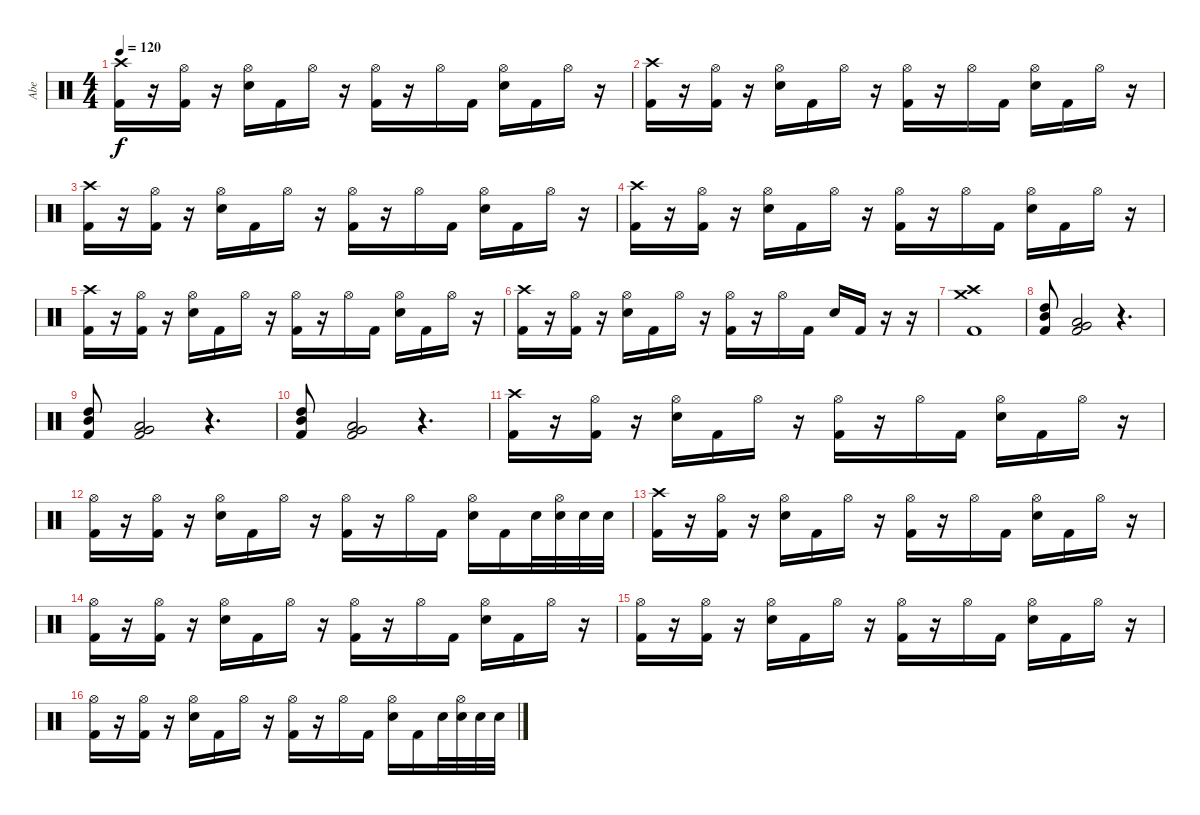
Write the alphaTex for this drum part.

\track ("Abe" "Abe") {instrument percussion}
\staff {score}
\articulation defaults
\ts (4 4)
\tempo 120
\clef neutral
\ks c
("Crash high (hit)" "Kick (hit) 2").16{dy f} r.16 ("Hi-Hat (open)" "Kick (hit) 2").16 r.16 ("Hi-Hat (open)" "Electric Snare (hit)").16 "Kick (hit) 2".16 "Hi-Hat (open)".16 r.16 ("Hi-Hat (open)" "Kick (hit) 2").16 r.16 "Hi-Hat (open)".16 "Kick (hit) 2".16 ("Hi-Hat (open)" "Electric Snare (hit)").16 "Kick (hit) 2".16 "Hi-Hat (open)".16 r.16 |
("Crash high (hit)" "Kick (hit) 2").16 r.16 ("Hi-Hat (open)" "Kick (hit) 2").16 r.16 ("Hi-Hat (open)" "Electric Snare (hit)").16 "Kick (hit) 2".16 "Hi-Hat (open)".16 r.16 ("Hi-Hat (open)" "Kick (hit) 2").16 r.16 "Hi-Hat (open)".16 "Kick (hit) 2".16 ("Hi-Hat (open)" "Electric Snare (hit)").16 "Kick (hit) 2".16 "Hi-Hat (open)".16 r.16 |
("Crash high (hit)" "Kick (hit) 2").16 r.16 ("Hi-Hat (open)" "Kick (hit) 2").16 r.16 ("Hi-Hat (open)" "Electric Snare (hit)").16 "Kick (hit) 2".16 "Hi-Hat (open)".16 r.16 ("Hi-Hat (open)" "Kick (hit) 2").16 r.16 "Hi-Hat (open)".16 "Kick (hit) 2".16 ("Hi-Hat (open)" "Electric Snare (hit)").16 "Kick (hit) 2".16 "Hi-Hat (open)".16 r.16 |
("Crash high (hit)" "Kick (hit) 2").16 r.16 ("Hi-Hat (open)" "Kick (hit) 2").16 r.16 ("Hi-Hat (open)" "Electric Snare (hit)").16 "Kick (hit) 2".16 "Hi-Hat (open)".16 r.16 ("Hi-Hat (open)" "Kick (hit) 2").16 r.16 "Hi-Hat (open)".16 "Kick (hit) 2".16 ("Hi-Hat (open)" "Electric Snare (hit)").16 "Kick (hit) 2".16 "Hi-Hat (open)".16 r.16 |
("Crash high (hit)" "Kick (hit) 2").16 r.16 ("Hi-Hat (open)" "Kick (hit) 2").16 r.16 ("Hi-Hat (open)" "Electric Snare (hit)").16 "Kick (hit) 2".16 "Hi-Hat (open)".16 r.16 ("Hi-Hat (open)" "Kick (hit) 2").16 r.16 "Hi-Hat (open)".16 "Kick (hit) 2".16 ("Hi-Hat (open)" "Electric Snare (hit)").16 "Kick (hit) 2".16 "Hi-Hat (open)".16 r.16 |
("Crash high (hit)" "Kick (hit) 2").16 r.16 ("Hi-Hat (open)" "Kick (hit) 2").16 r.16 ("Hi-Hat (open)" "Electric Snare (hit)").16 "Kick (hit) 2".16 "Hi-Hat (open)".16 r.16 ("Hi-Hat (open)" "Kick (hit) 2").16 r.16 "Hi-Hat (open)".16 "Kick (hit) 2".16 "Electric Snare (hit)".16 "Kick (hit) 2".16 r.16 r.16 |
("Crash medium (hit)" "Crash high (hit)" "Kick (hit) 2").1 |
("Mid Tom (hit)" "High Tom (hit)" "Kick (hit) 2").8 ("Low Tom (hit)" "Very Low Tom (hit)" "Kick (hit) 2").2 r.4{d} |
("Mid Tom (hit)" "High Tom (hit)" "Kick (hit) 2").8 ("Low Tom (hit)" "Very Low Tom (hit)" "Kick (hit) 2").2 r.4{d} |
("Mid Tom (hit)" "High Tom (hit)" "Kick (hit) 2").8 ("Low Tom (hit)" "Very Low Tom (hit)" "Kick (hit) 2").2 r.4{d} |
("Crash high (hit)" "Kick (hit) 2").16 r.16 ("Hi-Hat (open)" "Kick (hit) 2").16 r.16 ("Hi-Hat (open)" "Electric Snare (hit)").16 "Kick (hit) 2".16 "Hi-Hat (open)".16 r.16 ("Hi-Hat (open)" "Kick (hit) 2").16 r.16 "Hi-Hat (open)".16 "Kick (hit) 2".16 ("Hi-Hat (open)" "Electric Snare (hit)").16 "Kick (hit) 2".16 "Hi-Hat (open)".16 r.16 |
("Hi-Hat (open)" "Kick (hit) 2").16 r.16 ("Hi-Hat (open)" "Kick (hit) 2").16 r.16 ("Hi-Hat (open)" "Electric Snare (hit)").16 "Kick (hit) 2".16 "Hi-Hat (open)".16 r.16 ("Hi-Hat (open)" "Kick (hit) 2").16 r.16 "Hi-Hat (open)".16 "Kick (hit) 2".16 ("Hi-Hat (open)" "Electric Snare (hit)").16 "Kick (hit) 2".16 "Electric Snare (hit)".32 ("Hi-Hat (open)" "Electric Snare (hit)").32 "Electric Snare (hit)".32 "Electric Snare (hit)".32 |
("Crash high (hit)" "Kick (hit) 2").16 r.16 ("Hi-Hat (open)" "Kick (hit) 2").16 r.16 ("Hi-Hat (open)" "Electric Snare (hit)").16 "Kick (hit) 2".16 "Hi-Hat (open)".16 r.16 ("Hi-Hat (open)" "Kick (hit) 2").16 r.16 "Hi-Hat (open)".16 "Kick (hit) 2".16 ("Hi-Hat (open)" "Electric Snare (hit)").16 "Kick (hit) 2".16 "Hi-Hat (open)".16 r.16 |
("Hi-Hat (open)" "Kick (hit) 2").16 r.16 ("Hi-Hat (open)" "Kick (hit) 2").16 r.16 ("Hi-Hat (open)" "Electric Snare (hit)").16 "Kick (hit) 2".16 "Hi-Hat (open)".16 r.16 ("Hi-Hat (open)" "Kick (hit) 2").16 r.16 "Hi-Hat (open)".16 "Kick (hit) 2".16 ("Hi-Hat (open)" "Electric Snare (hit)").16 "Kick (hit) 2".16 "Hi-Hat (open)".16 r.16 |
("Hi-Hat (open)" "Kick (hit) 2").16 r.16 ("Hi-Hat (open)" "Kick (hit) 2").16 r.16 ("Hi-Hat (open)" "Electric Snare (hit)").16 "Kick (hit) 2".16 "Hi-Hat (open)".16 r.16 ("Hi-Hat (open)" "Kick (hit) 2").16 r.16 "Hi-Hat (open)".16 "Kick (hit) 2".16 ("Hi-Hat (open)" "Electric Snare (hit)").16 "Kick (hit) 2".16 "Hi-Hat (open)".16 r.16 |
("Hi-Hat (open)" "Kick (hit) 2").16 r.16 ("Hi-Hat (open)" "Kick (hit) 2").16 r.16 ("Hi-Hat (open)" "Electric Snare (hit)").16 "Kick (hit) 2".16 "Hi-Hat (open)".16 r.16 ("Hi-Hat (open)" "Kick (hit) 2").16 r.16 "Hi-Hat (open)".16 "Kick (hit) 2".16 ("Hi-Hat (open)" "Electric Snare (hit)").16 "Kick (hit) 2".16 "Electric Snare (hit)".32 ("Hi-Hat (open)" "Electric Snare (hit)").32 "Electric Snare (hit)".32 "Electric Snare (hit)".32
